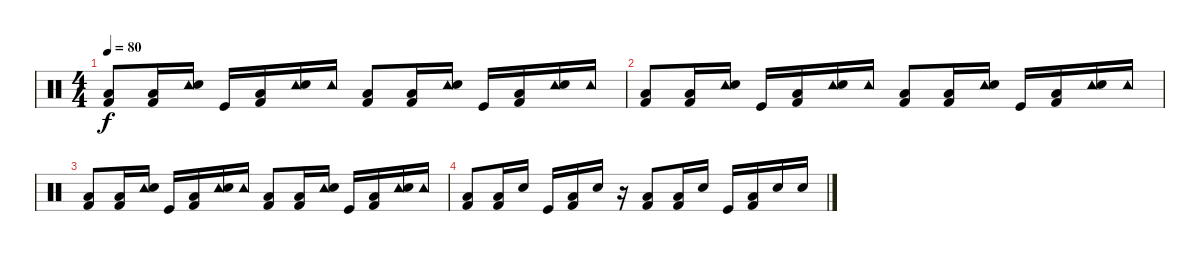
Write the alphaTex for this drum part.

\track "" {instrument percussion}
\staff {score}
\articulation defaults
\ts (4 4)
\tempo 80
\clef neutral
\ks c
("Kick (hit) 2" "Low Floor Tom (hit)").8{dy f} ("Kick (hit) 2" "Low Floor Tom (hit)").16 ("Tambourine (hit)" "Electric Snare (hit)").16 "Kick (hit)".16 ("Kick (hit) 2" "Low Floor Tom (hit)").16 ("Tambourine (hit)" "Electric Snare (hit)").16 "Tambourine (hit)".16 ("Kick (hit) 2" "Low Floor Tom (hit)").8 ("Kick (hit) 2" "Low Floor Tom (hit)").16 ("Tambourine (hit)" "Electric Snare (hit)").16 "Kick (hit)".16 ("Kick (hit) 2" "Low Floor Tom (hit)").16 ("Tambourine (hit)" "Electric Snare (hit)").16 "Tambourine (hit)".16 |
("Kick (hit) 2" "Low Floor Tom (hit)").8 ("Kick (hit) 2" "Low Floor Tom (hit)").16 ("Tambourine (hit)" "Electric Snare (hit)").16 "Kick (hit)".16 ("Kick (hit) 2" "Low Floor Tom (hit)").16 ("Tambourine (hit)" "Electric Snare (hit)").16 "Tambourine (hit)".16 ("Kick (hit) 2" "Low Floor Tom (hit)").8 ("Kick (hit) 2" "Low Floor Tom (hit)").16 ("Tambourine (hit)" "Electric Snare (hit)").16 "Kick (hit)".16 ("Kick (hit) 2" "Low Floor Tom (hit)").16 ("Tambourine (hit)" "Electric Snare (hit)").16 "Tambourine (hit)".16 |
("Kick (hit) 2" "Low Floor Tom (hit)").8 ("Kick (hit) 2" "Low Floor Tom (hit)").16 ("Tambourine (hit)" "Electric Snare (hit)").16 "Kick (hit)".16 ("Kick (hit) 2" "Low Floor Tom (hit)").16 ("Tambourine (hit)" "Electric Snare (hit)").16 "Tambourine (hit)".16 ("Kick (hit) 2" "Low Floor Tom (hit)").8 ("Kick (hit) 2" "Low Floor Tom (hit)").16 ("Tambourine (hit)" "Electric Snare (hit)").16 "Kick (hit)".16 ("Kick (hit) 2" "Low Floor Tom (hit)").16 ("Tambourine (hit)" "Electric Snare (hit)").16 "Tambourine (hit)".16 |
("Kick (hit) 2" "Low Floor Tom (hit)").8 ("Kick (hit) 2" "Low Floor Tom (hit)").16 "Electric Snare (hit)".16 "Kick (hit)".16 ("Kick (hit) 2" "Low Floor Tom (hit)").16 "Electric Snare (hit)".16 r.16 ("Kick (hit) 2" "Low Floor Tom (hit)").8 ("Kick (hit) 2" "Low Floor Tom (hit)").16 "Electric Snare (hit)".16 "Kick (hit)".16 ("Kick (hit) 2" "Low Floor Tom (hit)").16 "Electric Snare (hit)".16 "Electric Snare (hit)".16
